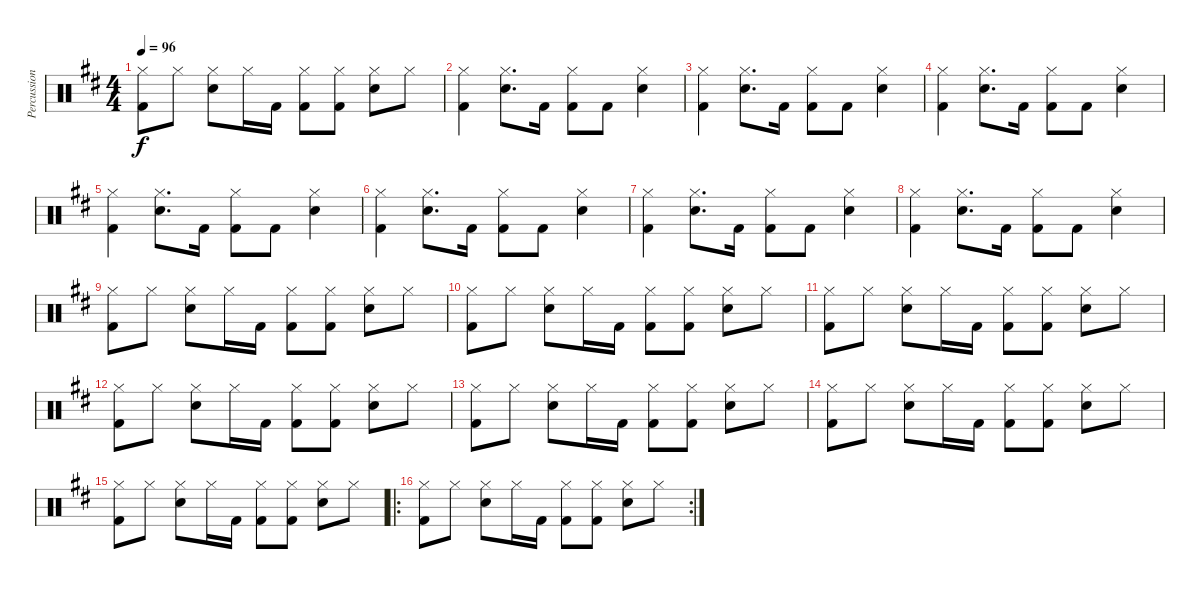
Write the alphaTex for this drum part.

\track ("Percussion" "Percussion") {instrument percussion}
\staff {score}
\articulation defaults
\ts (4 4)
\tempo 96
\clef neutral
\ks d
("Hi-Hat (closed)" "Kick (hit) 2").8{dy f} "Hi-Hat (closed)".8 ("Hi-Hat (closed)" "Snare (hit) 2").8 "Hi-Hat (closed)".16 "Kick (hit) 2".16 ("Hi-Hat (closed)" "Kick (hit) 2").8 ("Hi-Hat (closed)" "Kick (hit) 2").8 ("Hi-Hat (closed)" "Snare (hit) 2").8 "Hi-Hat (closed)".8 |
("Hi-Hat (closed)" "Kick (hit) 2").4 ("Hi-Hat (closed)" "Snare (hit) 2").8{d} "Kick (hit) 2".16 ("Hi-Hat (closed)" "Kick (hit) 2").8 "Kick (hit) 2".8 ("Hi-Hat (closed)" "Snare (hit) 2").4 |
("Hi-Hat (closed)" "Kick (hit) 2").4 ("Hi-Hat (closed)" "Snare (hit) 2").8{d} "Kick (hit) 2".16 ("Hi-Hat (closed)" "Kick (hit) 2").8 "Kick (hit) 2".8 ("Hi-Hat (closed)" "Snare (hit) 2").4 |
("Hi-Hat (closed)" "Kick (hit) 2").4 ("Hi-Hat (closed)" "Snare (hit) 2").8{d} "Kick (hit) 2".16 ("Hi-Hat (closed)" "Kick (hit) 2").8 "Kick (hit) 2".8 ("Hi-Hat (closed)" "Snare (hit) 2").4 |
("Hi-Hat (closed)" "Kick (hit) 2").4 ("Hi-Hat (closed)" "Snare (hit) 2").8{d} "Kick (hit) 2".16 ("Hi-Hat (closed)" "Kick (hit) 2").8 "Kick (hit) 2".8 ("Hi-Hat (closed)" "Snare (hit) 2").4 |
("Hi-Hat (closed)" "Kick (hit) 2").4 ("Hi-Hat (closed)" "Snare (hit) 2").8{d} "Kick (hit) 2".16 ("Hi-Hat (closed)" "Kick (hit) 2").8 "Kick (hit) 2".8 ("Hi-Hat (closed)" "Snare (hit) 2").4 |
("Hi-Hat (closed)" "Kick (hit) 2").4 ("Hi-Hat (closed)" "Snare (hit) 2").8{d} "Kick (hit) 2".16 ("Hi-Hat (closed)" "Kick (hit) 2").8 "Kick (hit) 2".8 ("Hi-Hat (closed)" "Snare (hit) 2").4 |
("Hi-Hat (closed)" "Kick (hit) 2").4 ("Hi-Hat (closed)" "Snare (hit) 2").8{d} "Kick (hit) 2".16 ("Hi-Hat (closed)" "Kick (hit) 2").8 "Kick (hit) 2".8 ("Hi-Hat (closed)" "Snare (hit) 2").4 |
("Hi-Hat (closed)" "Kick (hit) 2").8 "Hi-Hat (closed)".8 ("Hi-Hat (closed)" "Snare (hit) 2").8 "Hi-Hat (closed)".16 "Kick (hit) 2".16 ("Hi-Hat (closed)" "Kick (hit) 2").8 ("Hi-Hat (closed)" "Kick (hit) 2").8 ("Hi-Hat (closed)" "Snare (hit) 2").8 "Hi-Hat (closed)".8 |
("Hi-Hat (closed)" "Kick (hit) 2").8 "Hi-Hat (closed)".8 ("Hi-Hat (closed)" "Snare (hit) 2").8 "Hi-Hat (closed)".16 "Kick (hit) 2".16 ("Hi-Hat (closed)" "Kick (hit) 2").8 ("Hi-Hat (closed)" "Kick (hit) 2").8 ("Hi-Hat (closed)" "Snare (hit) 2").8 "Hi-Hat (closed)".8 |
("Hi-Hat (closed)" "Kick (hit) 2").8 "Hi-Hat (closed)".8 ("Hi-Hat (closed)" "Snare (hit) 2").8 "Hi-Hat (closed)".16 "Kick (hit) 2".16 ("Hi-Hat (closed)" "Kick (hit) 2").8 ("Hi-Hat (closed)" "Kick (hit) 2").8 ("Hi-Hat (closed)" "Snare (hit) 2").8 "Hi-Hat (closed)".8 |
("Hi-Hat (closed)" "Kick (hit) 2").8 "Hi-Hat (closed)".8 ("Hi-Hat (closed)" "Snare (hit) 2").8 "Hi-Hat (closed)".16 "Kick (hit) 2".16 ("Hi-Hat (closed)" "Kick (hit) 2").8 ("Hi-Hat (closed)" "Kick (hit) 2").8 ("Hi-Hat (closed)" "Snare (hit) 2").8 "Hi-Hat (closed)".8 |
("Hi-Hat (closed)" "Kick (hit) 2").8 "Hi-Hat (closed)".8 ("Hi-Hat (closed)" "Snare (hit) 2").8 "Hi-Hat (closed)".16 "Kick (hit) 2".16 ("Hi-Hat (closed)" "Kick (hit) 2").8 ("Hi-Hat (closed)" "Kick (hit) 2").8 ("Hi-Hat (closed)" "Snare (hit) 2").8 "Hi-Hat (closed)".8 |
("Hi-Hat (closed)" "Kick (hit) 2").8 "Hi-Hat (closed)".8 ("Hi-Hat (closed)" "Snare (hit) 2").8 "Hi-Hat (closed)".16 "Kick (hit) 2".16 ("Hi-Hat (closed)" "Kick (hit) 2").8 ("Hi-Hat (closed)" "Kick (hit) 2").8 ("Hi-Hat (closed)" "Snare (hit) 2").8 "Hi-Hat (closed)".8 |
("Hi-Hat (closed)" "Kick (hit) 2").8 "Hi-Hat (closed)".8 ("Hi-Hat (closed)" "Snare (hit) 2").8 "Hi-Hat (closed)".16 "Kick (hit) 2".16 ("Hi-Hat (closed)" "Kick (hit) 2").8 ("Hi-Hat (closed)" "Kick (hit) 2").8 ("Hi-Hat (closed)" "Snare (hit) 2").8 "Hi-Hat (closed)".8 |
\ro
\rc 2
("Hi-Hat (closed)" "Kick (hit) 2").8 "Hi-Hat (closed)".8 ("Hi-Hat (closed)" "Snare (hit) 2").8 "Hi-Hat (closed)".16 "Kick (hit) 2".16 ("Hi-Hat (closed)" "Kick (hit) 2").8 ("Hi-Hat (closed)" "Kick (hit) 2").8 ("Hi-Hat (closed)" "Snare (hit) 2").8 "Hi-Hat (closed)".8
